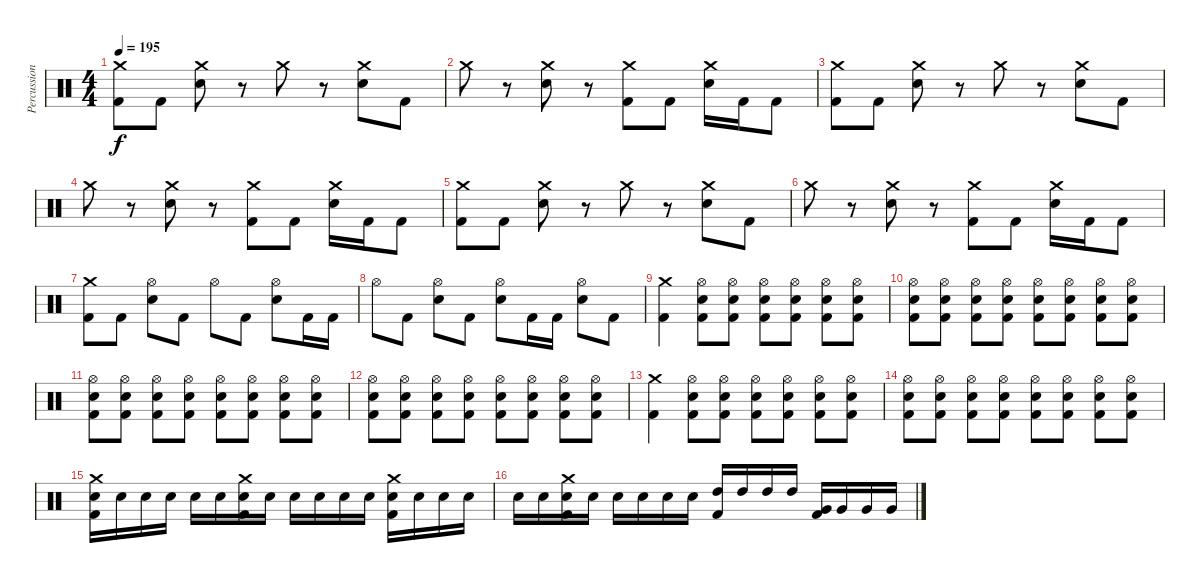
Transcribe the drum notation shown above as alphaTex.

\track ("Percussion" "Percussion") {instrument percussion}
\staff {score}
\articulation defaults
\ts (4 4)
\tempo 195
\clef neutral
\ks c
("Crash medium (hit)" "Kick (hit) 2").8{dy f} "Kick (hit) 2".8 ("Crash medium (hit)" "Snare (hit) 2").8 r.8 "Crash medium (hit)".8 r.8 ("Crash medium (hit)" "Snare (hit) 2").8 "Kick (hit) 2".8 |
"Crash medium (hit)".8 r.8 ("Crash medium (hit)" "Snare (hit) 2").8 r.8 ("Crash medium (hit)" "Kick (hit) 2").8 "Kick (hit) 2".8 ("Crash medium (hit)" "Snare (hit) 2").16 "Kick (hit) 2".16 "Kick (hit) 2".8 |
("Crash medium (hit)" "Kick (hit) 2").8 "Kick (hit) 2".8 ("Crash medium (hit)" "Snare (hit) 2").8 r.8 "Crash medium (hit)".8 r.8 ("Crash medium (hit)" "Snare (hit) 2").8 "Kick (hit) 2".8 |
"Crash medium (hit)".8 r.8 ("Crash medium (hit)" "Snare (hit) 2").8 r.8 ("Crash medium (hit)" "Kick (hit) 2").8 "Kick (hit) 2".8 ("Crash medium (hit)" "Snare (hit) 2").16 "Kick (hit) 2".16 "Kick (hit) 2".8 |
("Crash medium (hit)" "Kick (hit) 2").8 "Kick (hit) 2".8 ("Crash medium (hit)" "Snare (hit) 2").8 r.8 "Crash medium (hit)".8 r.8 ("Crash medium (hit)" "Snare (hit) 2").8 "Kick (hit) 2".8 |
"Crash medium (hit)".8 r.8 ("Crash medium (hit)" "Snare (hit) 2").8 r.8 ("Crash medium (hit)" "Kick (hit) 2").8 "Kick (hit) 2".8 ("Crash medium (hit)" "Snare (hit) 2").16 "Kick (hit) 2".16 "Kick (hit) 2".8 |
("Crash medium (hit)" "Kick (hit) 2").8 "Kick (hit) 2".8 ("Hi-Hat (open)" "Snare (hit) 2").8 "Kick (hit) 2".8 "Hi-Hat (open)".8 "Kick (hit) 2".8 ("Hi-Hat (open)" "Snare (hit) 2").8 "Kick (hit) 2".16 "Kick (hit) 2".16 |
"Hi-Hat (open)".8 "Kick (hit) 2".8 ("Hi-Hat (open)" "Snare (hit) 2").8 "Kick (hit) 2".8 ("Hi-Hat (open)" "Snare (hit) 2").8 "Kick (hit) 2".16 "Kick (hit) 2".16 ("Hi-Hat (open)" "Snare (hit) 2").8 "Kick (hit) 2".8 |
("Crash medium (hit)" "Kick (hit) 2").4 ("Hi-Hat (open)" "Snare (hit) 2" "Kick (hit) 2").8 ("Hi-Hat (open)" "Snare (hit) 2" "Kick (hit) 2").8 ("Hi-Hat (open)" "Snare (hit) 2" "Kick (hit) 2").8 ("Hi-Hat (open)" "Snare (hit) 2" "Kick (hit) 2").8 ("Hi-Hat (open)" "Snare (hit) 2" "Kick (hit) 2").8 ("Hi-Hat (open)" "Snare (hit) 2" "Kick (hit) 2").8 |
("Hi-Hat (open)" "Snare (hit) 2" "Kick (hit) 2").8 ("Hi-Hat (open)" "Snare (hit) 2" "Kick (hit) 2").8 ("Hi-Hat (open)" "Snare (hit) 2" "Kick (hit) 2").8 ("Hi-Hat (open)" "Snare (hit) 2" "Kick (hit) 2").8 ("Hi-Hat (open)" "Snare (hit) 2" "Kick (hit) 2").8 ("Hi-Hat (open)" "Snare (hit) 2" "Kick (hit) 2").8 ("Hi-Hat (open)" "Snare (hit) 2" "Kick (hit) 2").8 ("Hi-Hat (open)" "Snare (hit) 2" "Kick (hit) 2").8 |
("Hi-Hat (open)" "Snare (hit) 2" "Kick (hit) 2").8 ("Hi-Hat (open)" "Snare (hit) 2" "Kick (hit) 2").8 ("Hi-Hat (open)" "Snare (hit) 2" "Kick (hit) 2").8 ("Hi-Hat (open)" "Snare (hit) 2" "Kick (hit) 2").8 ("Hi-Hat (open)" "Snare (hit) 2" "Kick (hit) 2").8 ("Hi-Hat (open)" "Snare (hit) 2" "Kick (hit) 2").8 ("Hi-Hat (open)" "Snare (hit) 2" "Kick (hit) 2").8 ("Hi-Hat (open)" "Snare (hit) 2" "Kick (hit) 2").8 |
("Hi-Hat (open)" "Snare (hit) 2" "Kick (hit) 2").8 ("Hi-Hat (open)" "Snare (hit) 2" "Kick (hit) 2").8 ("Hi-Hat (open)" "Snare (hit) 2" "Kick (hit) 2").8 ("Hi-Hat (open)" "Snare (hit) 2" "Kick (hit) 2").8 ("Hi-Hat (open)" "Snare (hit) 2" "Kick (hit) 2").8 ("Hi-Hat (open)" "Snare (hit) 2" "Kick (hit) 2").8 ("Hi-Hat (open)" "Snare (hit) 2" "Kick (hit) 2").8 ("Hi-Hat (open)" "Snare (hit) 2" "Kick (hit) 2").8 |
("Crash medium (hit)" "Kick (hit) 2").4 ("Hi-Hat (open)" "Snare (hit) 2" "Kick (hit) 2").8 ("Hi-Hat (open)" "Snare (hit) 2" "Kick (hit) 2").8 ("Hi-Hat (open)" "Snare (hit) 2" "Kick (hit) 2").8 ("Hi-Hat (open)" "Snare (hit) 2" "Kick (hit) 2").8 ("Hi-Hat (open)" "Snare (hit) 2" "Kick (hit) 2").8 ("Hi-Hat (open)" "Snare (hit) 2" "Kick (hit) 2").8 |
("Hi-Hat (open)" "Snare (hit) 2" "Kick (hit) 2").8 ("Hi-Hat (open)" "Snare (hit) 2" "Kick (hit) 2").8 ("Hi-Hat (open)" "Snare (hit) 2" "Kick (hit) 2").8 ("Hi-Hat (open)" "Snare (hit) 2" "Kick (hit) 2").8 ("Hi-Hat (open)" "Snare (hit) 2" "Kick (hit) 2").8 ("Hi-Hat (open)" "Snare (hit) 2" "Kick (hit) 2").8 ("Hi-Hat (open)" "Snare (hit) 2" "Kick (hit) 2").8 ("Hi-Hat (open)" "Snare (hit) 2" "Kick (hit) 2").8 |
("Crash medium (hit)" "Snare (hit) 2" "Kick (hit) 2").16 "Snare (hit) 2".16 "Snare (hit) 2".16 "Snare (hit) 2".16 "Snare (hit) 2".16 "Snare (hit) 2".16 ("Crash medium (hit)" "Snare (hit) 2" "Kick (hit) 2").16 "Snare (hit) 2".16 "Snare (hit) 2".16 "Snare (hit) 2".16 "Snare (hit) 2".16 "Snare (hit) 2".16 ("Crash medium (hit)" "Snare (hit) 2" "Kick (hit) 2").16 "Snare (hit) 2".16 "Snare (hit) 2".16 "Snare (hit) 2".16 |
"Snare (hit) 2".16 "Snare (hit) 2".16 ("Crash medium (hit)" "Snare (hit) 2" "Kick (hit) 2").16 "Snare (hit) 2".16 "Snare (hit) 2".16 "Snare (hit) 2".16 "Snare (hit) 2".16 "Snare (hit) 2".16 ("High Tom (hit)" "Kick (hit) 2").16 "High Tom (hit)".16 "High Tom (hit)".16 "High Tom (hit)".16 ("Very Low Tom (hit)" "Kick (hit) 2").16 "Very Low Tom (hit)".16 "Very Low Tom (hit)".16 "Very Low Tom (hit)".16
